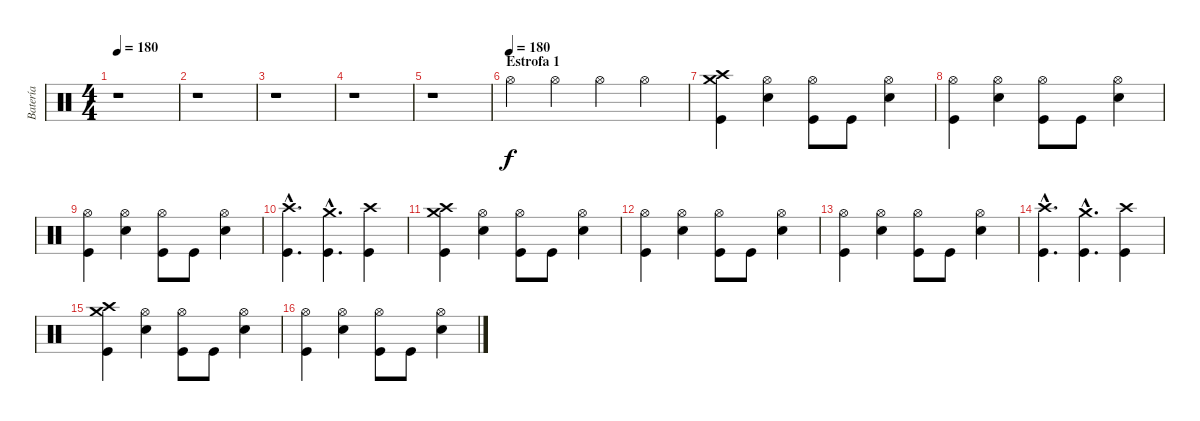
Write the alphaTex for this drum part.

\track ("Batería" "Batería") {instrument percussion}
\staff {score}
\articulation defaults
\ts (4 4)
\tempo 180
\clef neutral
\ks c
r.1{dy f} |
r.1 |
r.1 |
r.1 |
r.1 |
\section ("" "Estrofa 1")
\tempo (180)
"Hi-Hat (open)".4 "Hi-Hat (open)".4 "Hi-Hat (open)".4 "Hi-Hat (open)".4 |
("Crash medium (hit)" "Crash high (hit)" "Kick (hit)").4 ("Hi-Hat (open)" "Snare (hit) 2").4 ("Hi-Hat (open)" "Kick (hit)").8 "Kick (hit)".8 ("Hi-Hat (open)" "Snare (hit) 2").4 |
("Hi-Hat (open)" "Kick (hit)").4 ("Hi-Hat (open)" "Snare (hit) 2").4 ("Hi-Hat (open)" "Kick (hit)").8 "Kick (hit)".8 ("Hi-Hat (open)" "Snare (hit) 2").4 |
("Hi-Hat (open)" "Kick (hit)").4 ("Hi-Hat (open)" "Snare (hit) 2").4 ("Hi-Hat (open)" "Kick (hit)").8 "Kick (hit)".8 ("Hi-Hat (open)" "Snare (hit) 2").4 |
("Crash high (hit)"{hac} "Kick (hit)"{hac}).4{d} ("Crash medium (hit)"{hac} "Kick (hit)"{hac}).4{d} ("Crash high (hit)" "Kick (hit)").4 |
("Crash medium (hit)" "Crash high (hit)" "Kick (hit)").4 ("Hi-Hat (open)" "Snare (hit) 2").4 ("Hi-Hat (open)" "Kick (hit)").8 "Kick (hit)".8 ("Hi-Hat (open)" "Snare (hit) 2").4 |
("Hi-Hat (open)" "Kick (hit)").4 ("Hi-Hat (open)" "Snare (hit) 2").4 ("Hi-Hat (open)" "Kick (hit)").8 "Kick (hit)".8 ("Hi-Hat (open)" "Snare (hit) 2").4 |
("Hi-Hat (open)" "Kick (hit)").4 ("Hi-Hat (open)" "Snare (hit) 2").4 ("Hi-Hat (open)" "Kick (hit)").8 "Kick (hit)".8 ("Hi-Hat (open)" "Snare (hit) 2").4 |
("Crash high (hit)"{hac} "Kick (hit)"{hac}).4{d} ("Crash medium (hit)"{hac} "Kick (hit)"{hac}).4{d} ("Crash high (hit)" "Kick (hit)").4 |
("Crash medium (hit)" "Crash high (hit)" "Kick (hit)").4 ("Hi-Hat (open)" "Snare (hit) 2").4 ("Hi-Hat (open)" "Kick (hit)").8 "Kick (hit)".8 ("Hi-Hat (open)" "Snare (hit) 2").4 |
("Hi-Hat (open)" "Kick (hit)").4 ("Hi-Hat (open)" "Snare (hit) 2").4 ("Hi-Hat (open)" "Kick (hit)").8 "Kick (hit)".8 ("Hi-Hat (open)" "Snare (hit) 2").4
